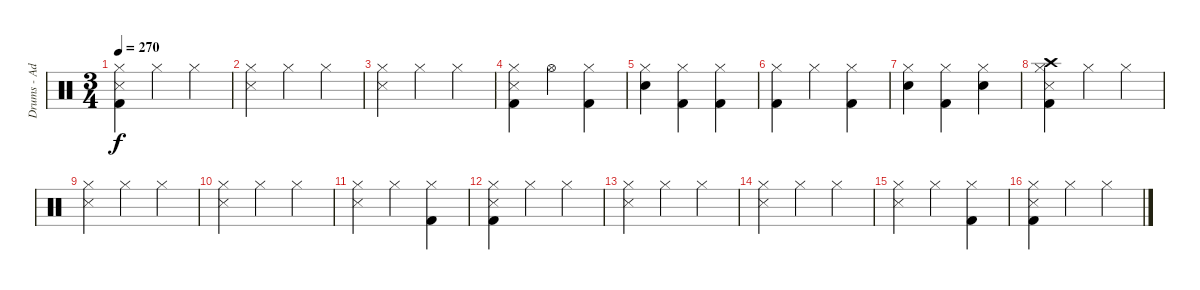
\track ("Drums - Adam" "Drums - Ad") {instrument percussion}
\staff {score}
\articulation defaults
\ts (3 4)
\tempo 270
\clef neutral
\ks c
("Hi-Hat (closed)" "Kick (hit) 2" "Snare (side stick) 3").4{dy f} "Hi-Hat (closed)".4 "Hi-Hat (closed)".4 |
("Hi-Hat (closed)" "Snare (side stick) 3").4 "Hi-Hat (closed)".4 "Hi-Hat (closed)".4 |
("Hi-Hat (closed)" "Snare (side stick) 3").4 "Hi-Hat (closed)".4 "Hi-Hat (closed)".4 |
("Hi-Hat (closed)" "Kick (hit) 2" "Snare (side stick) 3").4 "Hi-Hat (open)".4 ("Hi-Hat (closed)" "Kick (hit) 2").4 |
("Hi-Hat (closed)" "Electric Snare (hit)").4 ("Hi-Hat (closed)" "Kick (hit) 2").4 ("Hi-Hat (closed)" "Kick (hit) 2").4 |
("Hi-Hat (closed)" "Kick (hit) 2").4 "Hi-Hat (closed)".4 ("Hi-Hat (closed)" "Kick (hit) 2").4 |
("Hi-Hat (closed)" "Electric Snare (hit)").4 ("Hi-Hat (closed)" "Kick (hit) 2").4 ("Hi-Hat (closed)" "Electric Snare (hit)").4 |
("Hi-Hat (closed)" "Kick (hit) 2" "Snare (side stick) 3" "Crash high (hit)").4 "Hi-Hat (closed)".4 "Hi-Hat (closed)".4 |
("Hi-Hat (closed)" "Snare (side stick) 3").4 "Hi-Hat (closed)".4 "Hi-Hat (closed)".4 |
("Hi-Hat (closed)" "Snare (side stick) 3").4 "Hi-Hat (closed)".4 "Hi-Hat (closed)".4 |
("Hi-Hat (closed)" "Snare (side stick) 3").4 "Hi-Hat (closed)".4 ("Hi-Hat (closed)" "Kick (hit) 2").4 |
("Hi-Hat (closed)" "Kick (hit) 2" "Snare (side stick) 3").4 "Hi-Hat (closed)".4 "Hi-Hat (closed)".4 |
("Hi-Hat (closed)" "Snare (side stick) 3").4 "Hi-Hat (closed)".4 "Hi-Hat (closed)".4 |
("Hi-Hat (closed)" "Snare (side stick) 3").4 "Hi-Hat (closed)".4 "Hi-Hat (closed)".4 |
("Hi-Hat (closed)" "Snare (side stick) 3").4 "Hi-Hat (closed)".4 ("Hi-Hat (closed)" "Kick (hit) 2").4 |
("Hi-Hat (closed)" "Kick (hit) 2" "Snare (side stick) 3").4 "Hi-Hat (closed)".4 "Hi-Hat (closed)".4
